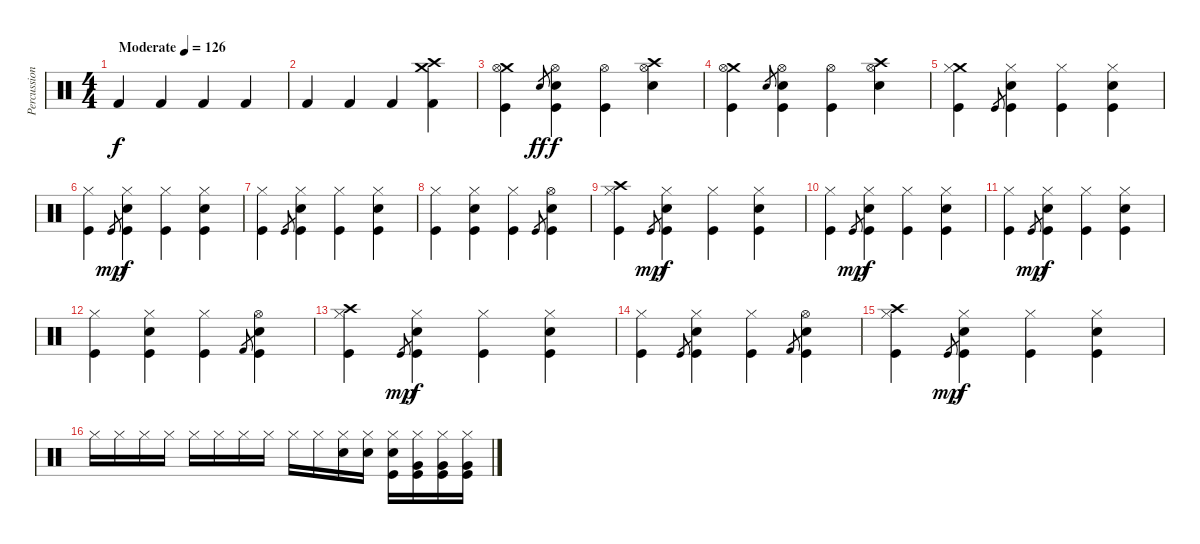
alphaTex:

\track ("Percussion" "Percussion") {instrument percussion}
\staff {score}
\articulation defaults
\ts (4 4)
\tempo (126 "Moderate")
\clef neutral
\ks c "Kick (hit) 2".4{dy f} "Kick (hit) 2".4 "Kick (hit) 2".4 "Kick (hit) 2".4
|
"Kick (hit) 2".4 "Kick (hit) 2".4 "Kick (hit) 2".4 ("Crash medium (hit)" "Crash high (hit)" "Kick (hit) 2").4 |
("Crash medium (hit)" "Hi-Hat (open)" "Kick (hit)").4 "Snare (hit) 2".8{gr dy ff} ("Hi-Hat (open)" "Snare (hit) 2" "Kick (hit)").4{dy f} ("Hi-Hat (open)" "Kick (hit)").4 ("Crash high (hit)" "Hi-Hat (open)" "Snare (hit) 2").4 |
("Crash medium (hit)" "Hi-Hat (open)" "Kick (hit)").4 "Snare (hit) 2".8{gr} ("Hi-Hat (open)" "Snare (hit) 2" "Kick (hit)").4 ("Hi-Hat (open)" "Kick (hit)").4 ("Crash high (hit)" "Hi-Hat (open)" "Snare (hit) 2").4 |
("Crash medium (hit)" "Hi-Hat (closed)" "Kick (hit)").4 "Kick (hit)".8{gr} ("Hi-Hat (closed)" "Snare (hit) 2" "Kick (hit)").4 ("Hi-Hat (closed)" "Kick (hit)").4 ("Hi-Hat (closed)" "Snare (hit) 2" "Kick (hit)").4 |
("Hi-Hat (closed)" "Kick (hit)").4 "Kick (hit)".8{gr dy mp} ("Hi-Hat (closed)" "Snare (hit) 2" "Kick (hit)").4{dy f} ("Hi-Hat (closed)" "Kick (hit)").4 ("Hi-Hat (closed)" "Snare (hit) 2" "Kick (hit)").4 |
("Hi-Hat (closed)" "Kick (hit)").4 "Kick (hit)".8{gr} ("Hi-Hat (closed)" "Snare (hit) 2" "Kick (hit)").4 ("Hi-Hat (closed)" "Kick (hit)").4 ("Hi-Hat (closed)" "Snare (hit) 2" "Kick (hit)").4 |
("Hi-Hat (closed)" "Kick (hit)").4 ("Hi-Hat (closed)" "Snare (hit) 2" "Kick (hit)").4 ("Hi-Hat (closed)" "Kick (hit)").4 "Kick (hit)".8{gr} ("Hi-Hat (open)" "Snare (hit) 2" "Kick (hit)").4 |
("Crash high (hit)" "Hi-Hat (closed)" "Kick (hit)").4 "Kick (hit)".8{gr dy mp} ("Hi-Hat (closed)" "Snare (hit) 2" "Kick (hit)").4{dy f} ("Hi-Hat (closed)" "Kick (hit)").4 ("Hi-Hat (closed)" "Snare (hit) 2" "Kick (hit)").4 |
("Hi-Hat (closed)" "Kick (hit)").4 "Kick (hit)".8{gr dy mp} ("Hi-Hat (closed)" "Snare (hit) 2" "Kick (hit)").4{dy f} ("Hi-Hat (closed)" "Kick (hit)").4 ("Hi-Hat (closed)" "Snare (hit) 2" "Kick (hit)").4 |
("Hi-Hat (closed)" "Kick (hit)").4 "Kick (hit)".8{gr dy mp} ("Hi-Hat (closed)" "Snare (hit) 2" "Kick (hit)").4{dy f} ("Hi-Hat (closed)" "Kick (hit)").4 ("Hi-Hat (closed)" "Snare (hit) 2" "Kick (hit)").4 |
("Hi-Hat (closed)" "Kick (hit)").4 ("Hi-Hat (closed)" "Snare (hit) 2" "Kick (hit)").4 ("Hi-Hat (closed)" "Kick (hit)").4 "Kick (hit) 2".8{gr} ("Hi-Hat (open)" "Snare (hit) 2" "Kick (hit)").4 |
("Crash high (hit)" "Hi-Hat (closed)" "Kick (hit)").4 "Kick (hit)".8{gr dy mp} ("Hi-Hat (closed)" "Snare (hit) 2" "Kick (hit)").4{dy f} ("Hi-Hat (closed)" "Kick (hit)").4 ("Hi-Hat (closed)" "Snare (hit) 2" "Kick (hit)").4 |
("Hi-Hat (closed)" "Kick (hit)").4 "Kick (hit)".8{gr} ("Hi-Hat (closed)" "Snare (hit) 2" "Kick (hit)").4 ("Hi-Hat (closed)" "Kick (hit)").4 "Kick (hit) 2".8{gr} ("Hi-Hat (open)" "Snare (hit) 2" "Kick (hit)").4 |
("Crash high (hit)" "Hi-Hat (closed)" "Kick (hit)").4 "Kick (hit)".8{gr dy mp} ("Hi-Hat (closed)" "Snare (hit) 2" "Kick (hit)").4{dy f} ("Hi-Hat (closed)" "Kick (hit)").4 ("Hi-Hat (closed)" "Snare (hit) 2" "Kick (hit)").4 |
"Hi-Hat (closed)".16 "Hi-Hat (closed)".16 "Hi-Hat (closed)".16 "Hi-Hat (closed)".16 "Hi-Hat (closed)".16 "Hi-Hat (closed)".16 "Hi-Hat (closed)".16 "Hi-Hat (closed)".16 "Hi-Hat (closed)".16 "Hi-Hat (closed)".16 ("Hi-Hat (closed)" "Snare (hit) 2").16 ("Hi-Hat (closed)" "Snare (hit) 2").16 ("Hi-Hat (closed)" "Snare (hit) 2" "Kick (hit)").16 ("Hi-Hat (closed)" "Very Low Tom (hit)" "Kick (hit)").16 ("Hi-Hat (closed)" "Very Low Tom (hit)" "Kick (hit)").16 ("Hi-Hat (closed)" "Very Low Tom (hit)" "Kick (hit)").16
